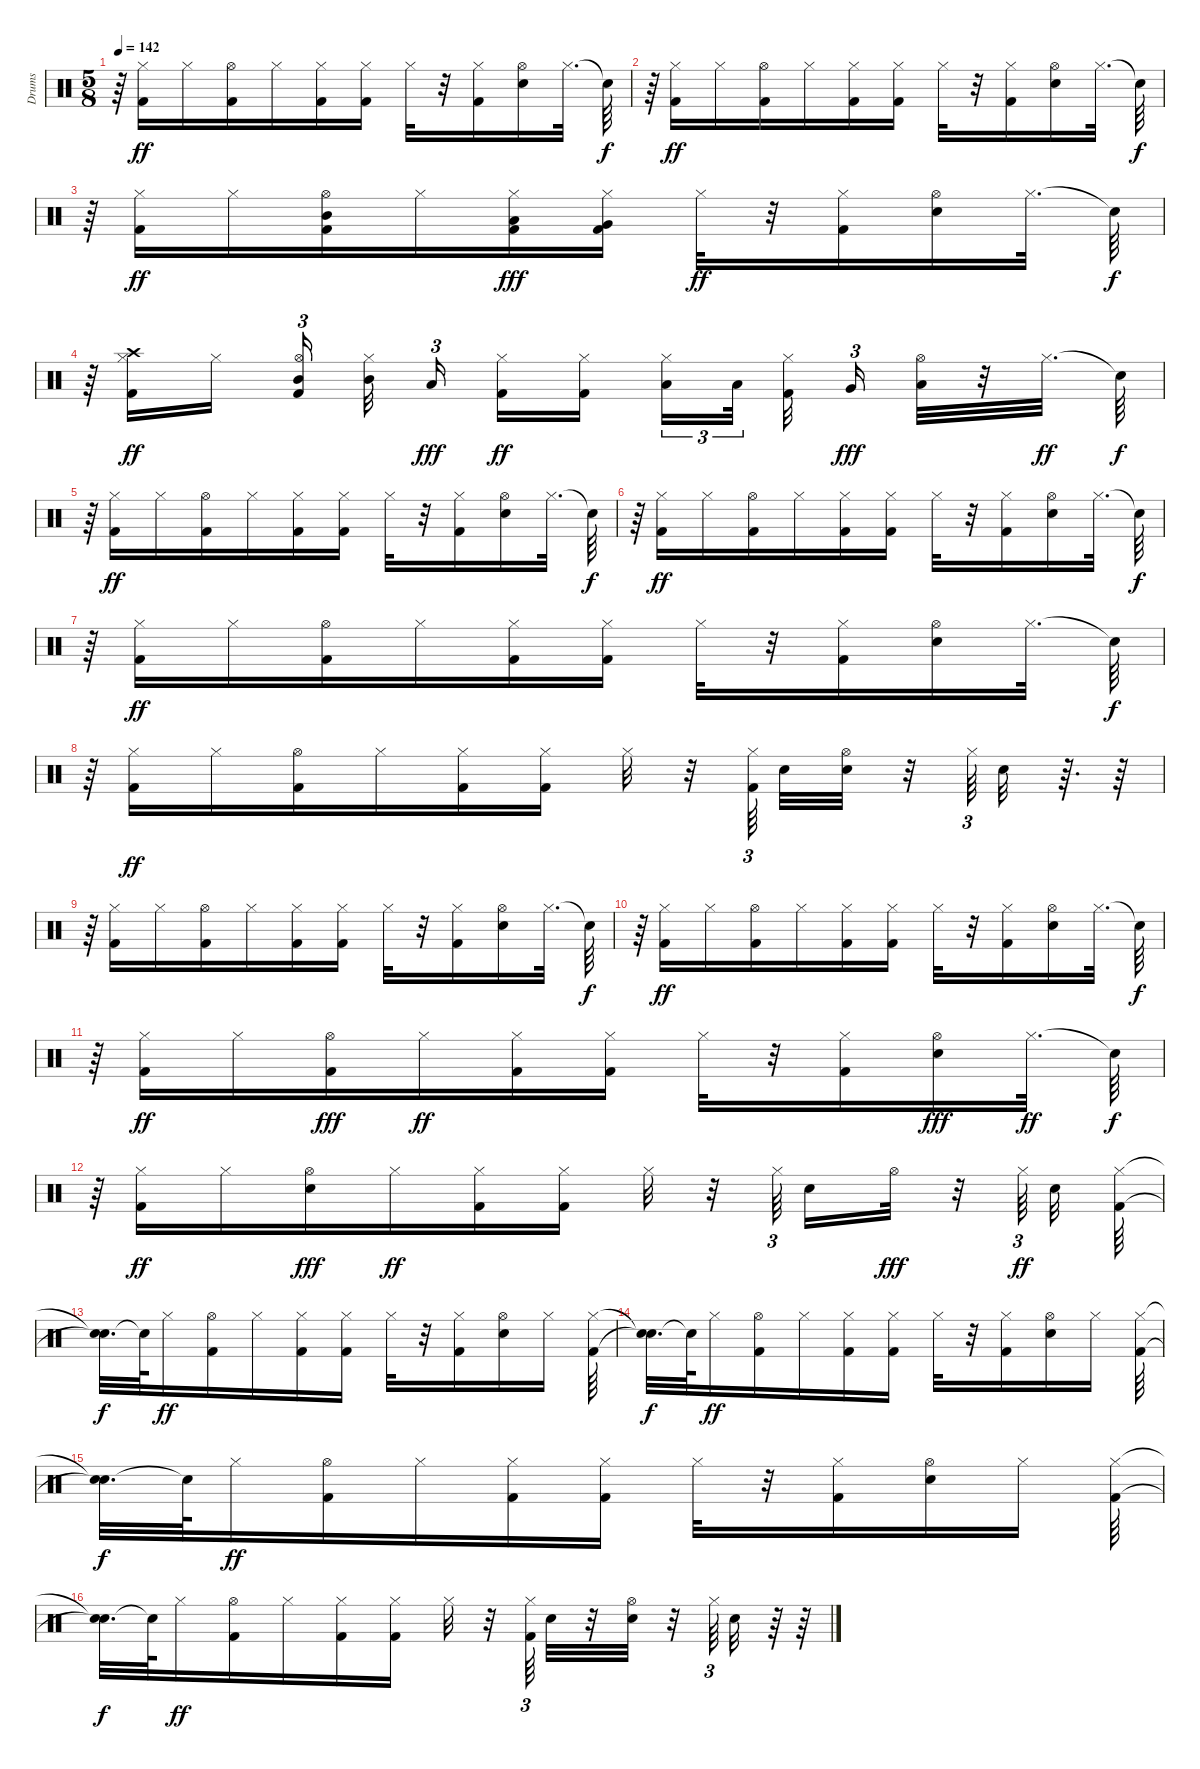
\track ("Drums                               " "Drums     ") {instrument percussion}
\staff {score}
\articulation defaults
\ts (5 8)
\tempo 142
\clef neutral
\ks c
r.64{dy f} ("Hi-Hat (closed)" "Kick (hit) 2").16{dy ff} "Hi-Hat (closed)".16 ("Kick (hit) 2" "Hi-Hat (open)").16 "Hi-Hat (closed)".16 ("Hi-Hat (closed)" "Kick (hit) 2").16 ("Kick (hit) 2" "Hi-Hat (closed)").16 "Hi-Hat (closed)".32 r.32 ("Kick (hit) 2" "Hi-Hat (closed)").16 ("Hi-Hat (open)" "Snare (hit) 2").16 "Hi-Hat (closed)".32{d} "Snare (hit)"{t}.64{dy f} |
r.64 ("Hi-Hat (closed)" "Kick (hit) 2").16{dy ff} "Hi-Hat (closed)".16 ("Kick (hit) 2" "Hi-Hat (open)").16 "Hi-Hat (closed)".16 ("Kick (hit) 2" "Hi-Hat (closed)").16 ("Kick (hit) 2" "Hi-Hat (closed)").16 "Hi-Hat (closed)".32 r.32 ("Kick (hit) 2" "Hi-Hat (closed)").16 ("Snare (hit) 2" "Hi-Hat (open)").16 "Hi-Hat (closed)".32{d} "Snare (hit)"{t}.64{dy f} |
r.64 ("Kick (hit) 2" "Hi-Hat (closed)").16{dy ff} "Hi-Hat (closed)".16 ("Kick (hit) 2" "Mid Tom (hit)" "Hi-Hat (open)").16 "Hi-Hat (closed)".16 ("Kick (hit) 2" "Hi-Hat (closed)" "Low Tom (hit)").16{dy fff} ("Kick (hit) 2" "Very Low Tom (hit)" "Hi-Hat (closed)").16 "Hi-Hat (closed)".32{dy ff} r.32 ("Kick (hit) 2" "Hi-Hat (closed)").16 ("Hi-Hat (open)" "Snare (hit) 2").16 "Hi-Hat (closed)".32{d} "Snare (hit)"{t}.64{dy f} |
r.64 ("Hi-Hat (closed)" "Kick (hit) 2" "Crash high (hit)").16{dy ff} "Hi-Hat (closed)".16 ("Hi-Hat (open)" "Mid Tom (hit)" "Kick (hit) 2").16{tu (3 2)} ("Mid Tom (hit)" "Hi-Hat (closed)").32 "Low Tom (hit)".16{tu (3 2) dy fff} ("Kick (hit) 2" "Hi-Hat (closed)").16{dy ff} ("Kick (hit) 2" "Hi-Hat (closed)").16 ("Hi-Hat (closed)" "Low Tom (hit)").16{tu (3 2)} "Low Tom (hit)".32{tu (3 2)} ("Kick (hit) 2" "Hi-Hat (closed)").32 "Very Low Tom (hit)".16{tu (3 2) dy fff} ("Hi-Hat (open)" "Low Floor Tom (hit)").32 r.32 "Hi-Hat (closed)".32{d dy ff} "Snare (hit)"{t}.64{dy f} |
r.64 ("Hi-Hat (closed)" "Kick (hit) 2").16{dy ff} "Hi-Hat (closed)".16 ("Hi-Hat (open)" "Kick (hit) 2").16 "Hi-Hat (closed)".16 ("Hi-Hat (closed)" "Kick (hit) 2").16 ("Kick (hit) 2" "Hi-Hat (closed)").16 "Hi-Hat (closed)".32 r.32 ("Kick (hit) 2" "Hi-Hat (closed)").16 ("Hi-Hat (open)" "Snare (hit) 2").16 "Hi-Hat (closed)".32{d} "Snare (hit)"{t}.64{dy f} |
r.64 ("Hi-Hat (closed)" "Kick (hit) 2").16{dy ff} "Hi-Hat (closed)".16 ("Kick (hit) 2" "Hi-Hat (open)").16 "Hi-Hat (closed)".16 ("Hi-Hat (closed)" "Kick (hit) 2").16 ("Kick (hit) 2" "Hi-Hat (closed)").16 "Hi-Hat (closed)".32 r.32 ("Kick (hit) 2" "Hi-Hat (closed)").16 ("Hi-Hat (open)" "Snare (hit) 2").16 "Hi-Hat (closed)".32{d} "Snare (hit)"{t}.64{dy f} |
r.64 ("Kick (hit) 2" "Hi-Hat (closed)").16{dy ff} "Hi-Hat (closed)".16 ("Hi-Hat (open)" "Kick (hit) 2").16 "Hi-Hat (closed)".16 ("Kick (hit) 2" "Hi-Hat (closed)").16 ("Kick (hit) 2" "Hi-Hat (closed)").16 "Hi-Hat (closed)".32 r.32 ("Kick (hit) 2" "Hi-Hat (closed)").16 ("Snare (hit) 2" "Hi-Hat (open)").16 "Hi-Hat (closed)".32{d} "Snare (hit)"{t}.64{dy f} |
r.64 ("Kick (hit) 2" "Hi-Hat (closed)").16{dy ff} "Hi-Hat (closed)".16 ("Kick (hit) 2" "Hi-Hat (open)").16 "Hi-Hat (closed)".16 ("Kick (hit) 2" "Hi-Hat (closed)").16 ("Kick (hit) 2" "Hi-Hat (closed)").16 "Hi-Hat (closed)".32 r.32 ("Kick (hit) 2" "Hi-Hat (closed)").64{tu (3 2)} "Snare (hit) 2".32 ("Snare (hit) 2" "Hi-Hat (open)").32 r.32 "Hi-Hat (closed)".64{tu (3 2)} "Snare (hit) 2".32 r.64{d} r.64 |
r.64 ("Hi-Hat (closed)" "Kick (hit) 2").16 "Hi-Hat (closed)".16 ("Kick (hit) 2" "Hi-Hat (open)").16 "Hi-Hat (closed)".16 ("Kick (hit) 2" "Hi-Hat (closed)").16 ("Kick (hit) 2" "Hi-Hat (closed)").16 "Hi-Hat (closed)".32 r.32 ("Kick (hit) 2" "Hi-Hat (closed)").16 ("Hi-Hat (open)" "Snare (hit) 2").16 "Hi-Hat (closed)".32{d} "Snare (hit)"{t}.64{dy f} |
r.64 ("Kick (hit) 2" "Hi-Hat (closed)").16{dy ff} "Hi-Hat (closed)".16 ("Kick (hit) 2" "Hi-Hat (open)").16 "Hi-Hat (closed)".16 ("Kick (hit) 2" "Hi-Hat (closed)").16 ("Kick (hit) 2" "Hi-Hat (closed)").16 "Hi-Hat (closed)".32 r.32 ("Kick (hit) 2" "Hi-Hat (closed)").16 ("Hi-Hat (open)" "Snare (hit) 2").16 "Hi-Hat (closed)".32{d} "Snare (hit)"{t}.64{dy f} |
r.64 ("Kick (hit) 2" "Hi-Hat (closed)").16{dy ff} "Hi-Hat (closed)".16 ("Kick (hit) 2" "Hi-Hat (open)").16{dy fff} "Hi-Hat (closed)".16{dy ff} ("Hi-Hat (closed)" "Kick (hit) 2").16 ("Kick (hit) 2" "Hi-Hat (closed)").16 "Hi-Hat (closed)".32 r.32 ("Kick (hit) 2" "Hi-Hat (closed)").16 ("Snare (hit) 2" "Hi-Hat (open)").16{dy fff} "Hi-Hat (closed)".32{d dy ff} "Snare (hit)"{t}.64{dy f} |
r.64 ("Kick (hit) 2" "Hi-Hat (closed)").16{dy ff} "Hi-Hat (closed)".16 ("Snare (hit) 2" "Hi-Hat (open)").16{dy fff} "Hi-Hat (closed)".16{dy ff} ("Hi-Hat (closed)" "Kick (hit) 2").16 ("Kick (hit) 2" "Hi-Hat (closed)").16 "Hi-Hat (closed)".32 r.32 "Hi-Hat (closed)".64{tu (3 2)} "Snare (hit) 2".16 "Hi-Hat (open)".32{dy fff} r.32 "Hi-Hat (closed)".64{tu (3 2) dy ff} "Snare (hit) 2".32 ("Kick (hit) 2" "Hi-Hat (closed)").64 |
("Snare (hit)"{t} "Snare (hit)"{t}).32{d dy f} "Snare (hit)"{t}.64 "Hi-Hat (closed)".16{dy ff} ("Kick (hit) 2" "Hi-Hat (open)").16 "Hi-Hat (closed)".16 ("Hi-Hat (closed)" "Kick (hit) 2").16 ("Kick (hit) 2" "Hi-Hat (closed)").16 "Hi-Hat (closed)".32 r.32 ("Kick (hit) 2" "Hi-Hat (closed)").16 ("Snare (hit) 2" "Hi-Hat (open)").16 "Hi-Hat (closed)".16 ("Hi-Hat (closed)" "Kick (hit) 2").64 |
("Snare (hit)"{t} "Snare (hit)"{t}).32{d dy f} "Snare (hit)"{t}.64 "Hi-Hat (closed)".16{dy ff} ("Hi-Hat (open)" "Kick (hit) 2").16 "Hi-Hat (closed)".16 ("Hi-Hat (closed)" "Kick (hit) 2").16 ("Kick (hit) 2" "Hi-Hat (closed)").16 "Hi-Hat (closed)".32 r.32 ("Kick (hit) 2" "Hi-Hat (closed)").16 ("Hi-Hat (open)" "Snare (hit) 2").16 "Hi-Hat (closed)".16 ("Hi-Hat (closed)" "Kick (hit) 2").64 |
("Snare (hit)"{t} "Snare (hit)"{t}).32{d dy f} "Snare (hit)"{t}.64 "Hi-Hat (closed)".16{dy ff} ("Hi-Hat (open)" "Kick (hit) 2").16 "Hi-Hat (closed)".16 ("Kick (hit) 2" "Hi-Hat (closed)").16 ("Kick (hit) 2" "Hi-Hat (closed)").16 "Hi-Hat (closed)".32 r.32 ("Kick (hit) 2" "Hi-Hat (closed)").16 ("Hi-Hat (open)" "Snare (hit) 2").16 "Hi-Hat (closed)".16 ("Kick (hit) 2" "Hi-Hat (closed)").64 |
("Snare (hit)"{t} "Snare (hit)"{t}).32{d dy f} "Snare (hit)"{t}.64 "Hi-Hat (closed)".16{dy ff} ("Hi-Hat (open)" "Kick (hit) 2").16 "Hi-Hat (closed)".16 ("Kick (hit) 2" "Hi-Hat (closed)").16 ("Kick (hit) 2" "Hi-Hat (closed)").16 "Hi-Hat (closed)".32 r.32 ("Kick (hit) 2" "Hi-Hat (closed)").64{tu (3 2)} "Snare (hit) 2".32 r.32 ("Hi-Hat (open)" "Snare (hit) 2").32 r.32 "Hi-Hat (closed)".64{tu (3 2)} "Snare (hit) 2".32 r.64 r.64
